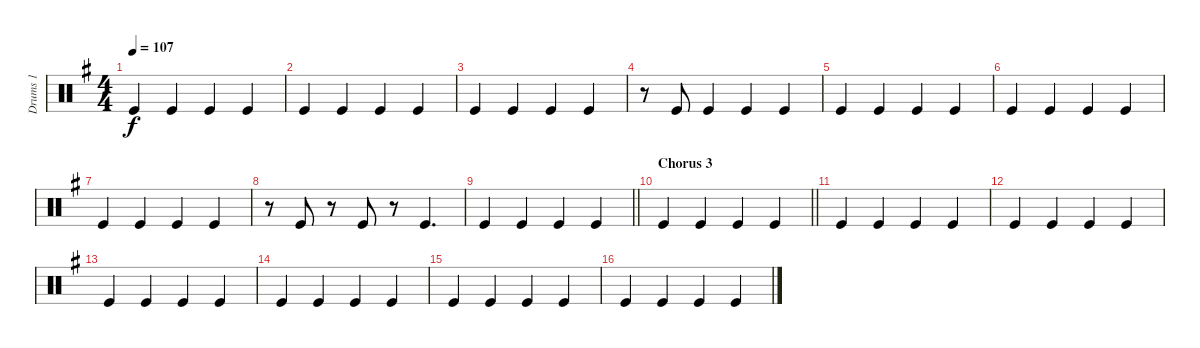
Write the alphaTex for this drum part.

\track ("Drums 1" "Drums 1") {instrument percussion}
\staff {score}
\articulation defaults
\ts (4 4)
\tempo 107
\clef neutral
\ks g "Kick (hit)".4{dy f} "Kick (hit)".4 "Kick (hit)".4 "Kick (hit)".4
|
"Kick (hit)".4 "Kick (hit)".4 "Kick (hit)".4 "Kick (hit)".4 |
"Kick (hit)".4 "Kick (hit)".4 "Kick (hit)".4 "Kick (hit)".4 |
r.8 "Kick (hit)".8 "Kick (hit)".4 "Kick (hit)".4 "Kick (hit)".4 |
"Kick (hit)".4 "Kick (hit)".4 "Kick (hit)".4 "Kick (hit)".4 |
"Kick (hit)".4 "Kick (hit)".4 "Kick (hit)".4 "Kick (hit)".4 |
"Kick (hit)".4 "Kick (hit)".4 "Kick (hit)".4 "Kick (hit)".4 |
r.8 "Kick (hit)".8 r.8 "Kick (hit)".8 r.8 "Kick (hit)".4{d} |
\barLineRight lightlight "Kick (hit)".4 "Kick (hit)".4 "Kick (hit)".4 "Kick (hit)".4
|
\section ("" "Chorus 3")
\barLineRight lightlight "Kick (hit)".4 "Kick (hit)".4 "Kick (hit)".4 "Kick (hit)".4
|
"Kick (hit)".4 "Kick (hit)".4 "Kick (hit)".4 "Kick (hit)".4 |
"Kick (hit)".4 "Kick (hit)".4 "Kick (hit)".4 "Kick (hit)".4 |
"Kick (hit)".4 "Kick (hit)".4 "Kick (hit)".4 "Kick (hit)".4 |
"Kick (hit)".4 "Kick (hit)".4 "Kick (hit)".4 "Kick (hit)".4 |
"Kick (hit)".4 "Kick (hit)".4 "Kick (hit)".4 "Kick (hit)".4 |
"Kick (hit)".4 "Kick (hit)".4 "Kick (hit)".4 "Kick (hit)".4
